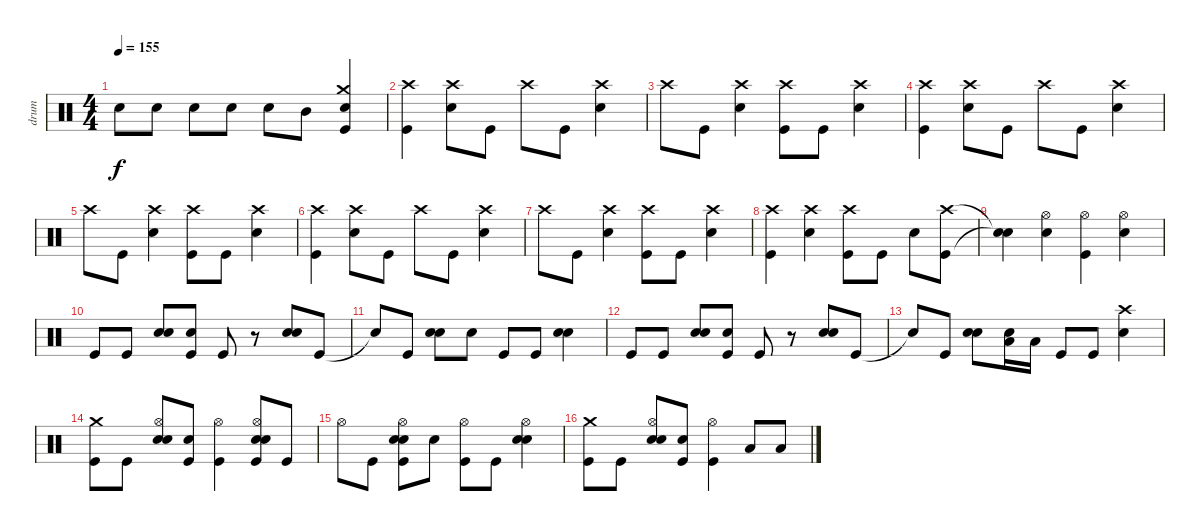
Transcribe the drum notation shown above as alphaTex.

\track ("drum" "drum") {instrument percussion}
\staff {score}
\articulation defaults
\ts (4 4)
\tempo 155
\clef neutral
\ks c "Snare (hit) 2".8{dy f} "Snare (hit) 2".8 "Snare (hit) 2".8 "Snare (hit) 2".8 "Snare (hit) 2".8 "Mid Tom (hit)".8
("Crash medium (hit)" "Snare (hit) 2" "Kick (hit)").4 |
("Crash high (hit)" "Kick (hit)").4 ("Crash high (hit)" "Snare (hit) 2").8 "Kick (hit)".8 "Crash high (hit)".8 "Kick (hit)".8 ("Crash high (hit)" "Snare (hit) 2").4 |
"Crash high (hit)".8 "Kick (hit)".8 ("Crash high (hit)" "Snare (hit) 2").4 ("Crash high (hit)" "Kick (hit)").8 "Kick (hit)".8 ("Crash high (hit)" "Snare (hit) 2").4 |
("Crash high (hit)" "Kick (hit)").4 ("Crash high (hit)" "Snare (hit) 2").8 "Kick (hit)".8 "Crash high (hit)".8 "Kick (hit)".8 ("Crash high (hit)" "Snare (hit) 2").4 |
"Crash high (hit)".8 "Kick (hit)".8 ("Crash high (hit)" "Snare (hit) 2").4 ("Crash high (hit)" "Kick (hit)").8 "Kick (hit)".8 ("Crash high (hit)" "Snare (hit) 2").4 |
("Crash high (hit)" "Kick (hit)").4 ("Crash high (hit)" "Snare (hit) 2").8 "Kick (hit)".8 "Crash high (hit)".8 "Kick (hit)".8 ("Crash high (hit)" "Snare (hit) 2").4 |
"Crash high (hit)".8 "Kick (hit)".8 ("Crash high (hit)" "Snare (hit) 2").4 ("Crash high (hit)" "Kick (hit)").8 "Kick (hit)".8 ("Crash high (hit)" "Snare (hit) 2").4 |
("Crash high (hit)" "Kick (hit)").4 ("Crash high (hit)" "Snare (hit) 2").4 ("Crash high (hit)" "Kick (hit)").8 "Kick (hit)".8 "Snare (hit) 2".8 ("Crash high (hit)" "Kick (hit)").8 |
("Snare (hit)"{t} "Snare (hit)"{t}).4 ("Hi-Hat (open)" "Snare (hit) 2").4 ("Hi-Hat (open)" "Kick (hit)").4 ("Hi-Hat (open)" "Snare (hit) 2").4 |
"Kick (hit)".8 "Kick (hit)".8 ("Hand Clap (hit)" "Snare (hit) 2").8 ("Hand Clap (hit)" "Kick (hit)").8 "Kick (hit)".8 r.8 ("Hand Clap (hit)" "Snare (hit) 2").8 "Kick (hit)".8 |
"Snare (hit)"{t}.8 "Kick (hit)".8 ("Hand Clap (hit)" "Snare (hit) 2").8 "Hand Clap (hit)".8 "Kick (hit)".8 "Kick (hit)".8 ("Hand Clap (hit)" "Snare (hit) 2").4 |
"Kick (hit)".8 "Kick (hit)".8 ("Hand Clap (hit)" "Snare (hit) 2").8 ("Hand Clap (hit)" "Kick (hit)").8 "Kick (hit)".8 r.8 ("Hand Clap (hit)" "Snare (hit) 2").8 "Kick (hit)".8 |
"Snare (hit)"{t}.8 "Kick (hit)".8 ("Hand Clap (hit)" "Snare (hit) 2").8 ("Hand Clap (hit)" "Low Tom (hit)").16 "Low Tom (hit)".16 "Kick (hit)".8 "Kick (hit)".8 ("Crash high (hit)" "Snare (hit) 2").4 |
("Crash medium (hit)" "Kick (hit)").8 "Kick (hit)".8 ("Hi-Hat (open)" "Hand Clap (hit)" "Snare (hit) 2").8 ("Hand Clap (hit)" "Kick (hit)").8 ("Hi-Hat (open)" "Kick (hit)").4 ("Hi-Hat (open)" "Hand Clap (hit)" "Snare (hit) 2" "Kick (hit)").8 "Kick (hit)".8 |
"Hi-Hat (open)".8 "Kick (hit)".8 ("Hi-Hat (open)" "Hand Clap (hit)" "Snare (hit) 2" "Kick (hit)").8 "Hand Clap (hit)".8 ("Hi-Hat (open)" "Kick (hit)").8 "Kick (hit)".8 ("Hi-Hat (open)" "Hand Clap (hit)" "Snare (hit) 2").4 |
("Crash medium (hit)" "Kick (hit)").8 "Kick (hit)".8 ("Hi-Hat (open)" "Hand Clap (hit)" "Snare (hit) 2").8 ("Hand Clap (hit)" "Kick (hit)").8 ("Hi-Hat (open)" "Kick (hit)").4 "Low Tom (hit)".8 "Low Tom (hit)".8
